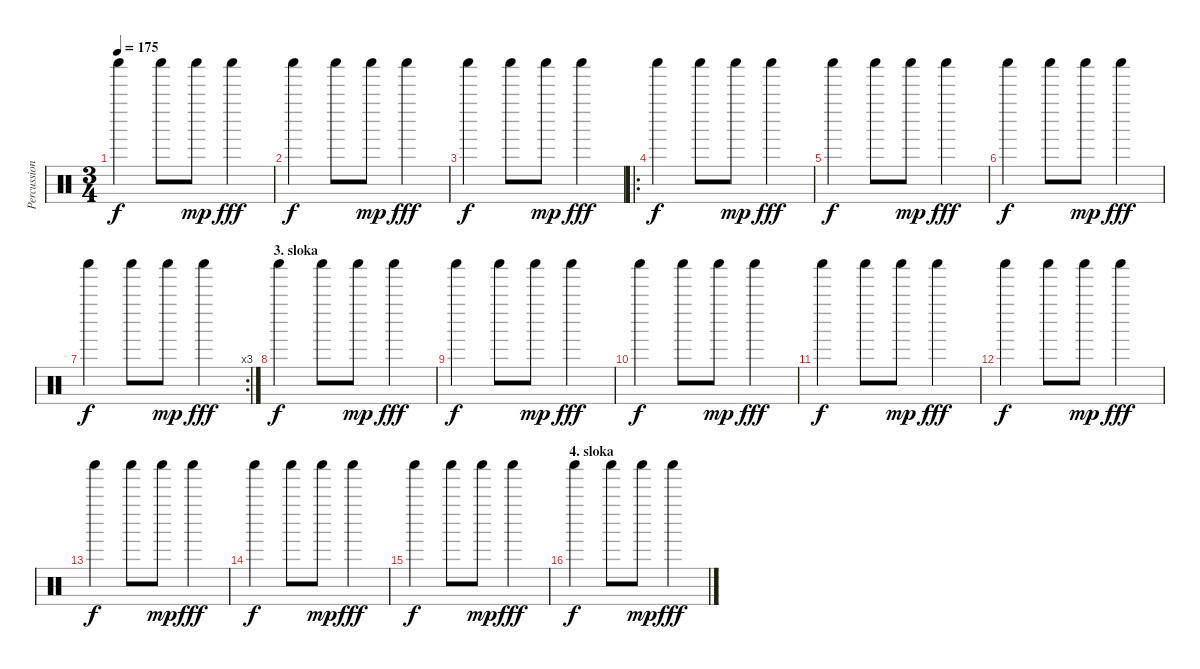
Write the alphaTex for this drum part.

\track ("Percussion" "Percussion") {instrument percussion}
\staff {score}
\articulation defaults
\ts (3 4)
\tempo 175
\clef neutral
\ks c "Shaker (hit)".4{dy f} "Shaker (hit)".8 "Shaker (hit)".8{dy mp} "Shaker (hit)".4{dy fff}
|
"Shaker (hit)".4{dy f} "Shaker (hit)".8 "Shaker (hit)".8{dy mp} "Shaker (hit)".4{dy fff} |
"Shaker (hit)".4{dy f} "Shaker (hit)".8 "Shaker (hit)".8{dy mp} "Shaker (hit)".4{dy fff} |
\ro "Shaker (hit)".4{dy f} "Shaker (hit)".8 "Shaker (hit)".8{dy mp} "Shaker (hit)".4{dy fff}
|
"Shaker (hit)".4{dy f} "Shaker (hit)".8 "Shaker (hit)".8{dy mp} "Shaker (hit)".4{dy fff} |
"Shaker (hit)".4{dy f} "Shaker (hit)".8 "Shaker (hit)".8{dy mp} "Shaker (hit)".4{dy fff} |
\rc 3 "Shaker (hit)".4{dy f} "Shaker (hit)".8 "Shaker (hit)".8{dy mp} "Shaker (hit)".4{dy fff}
|
\section ("" "3. sloka")
"Shaker (hit)".4{dy f} "Shaker (hit)".8 "Shaker (hit)".8{dy mp} "Shaker (hit)".4{dy fff} |
"Shaker (hit)".4{dy f} "Shaker (hit)".8 "Shaker (hit)".8{dy mp} "Shaker (hit)".4{dy fff} |
"Shaker (hit)".4{dy f} "Shaker (hit)".8 "Shaker (hit)".8{dy mp} "Shaker (hit)".4{dy fff} |
"Shaker (hit)".4{dy f} "Shaker (hit)".8 "Shaker (hit)".8{dy mp} "Shaker (hit)".4{dy fff} |
"Shaker (hit)".4{dy f} "Shaker (hit)".8 "Shaker (hit)".8{dy mp} "Shaker (hit)".4{dy fff} |
"Shaker (hit)".4{dy f} "Shaker (hit)".8 "Shaker (hit)".8{dy mp} "Shaker (hit)".4{dy fff} |
"Shaker (hit)".4{dy f} "Shaker (hit)".8 "Shaker (hit)".8{dy mp} "Shaker (hit)".4{dy fff} |
"Shaker (hit)".4{dy f} "Shaker (hit)".8 "Shaker (hit)".8{dy mp} "Shaker (hit)".4{dy fff} |
\section ("" "4. sloka")
"Shaker (hit)".4{dy f} "Shaker (hit)".8 "Shaker (hit)".8{dy mp} "Shaker (hit)".4{dy fff}
